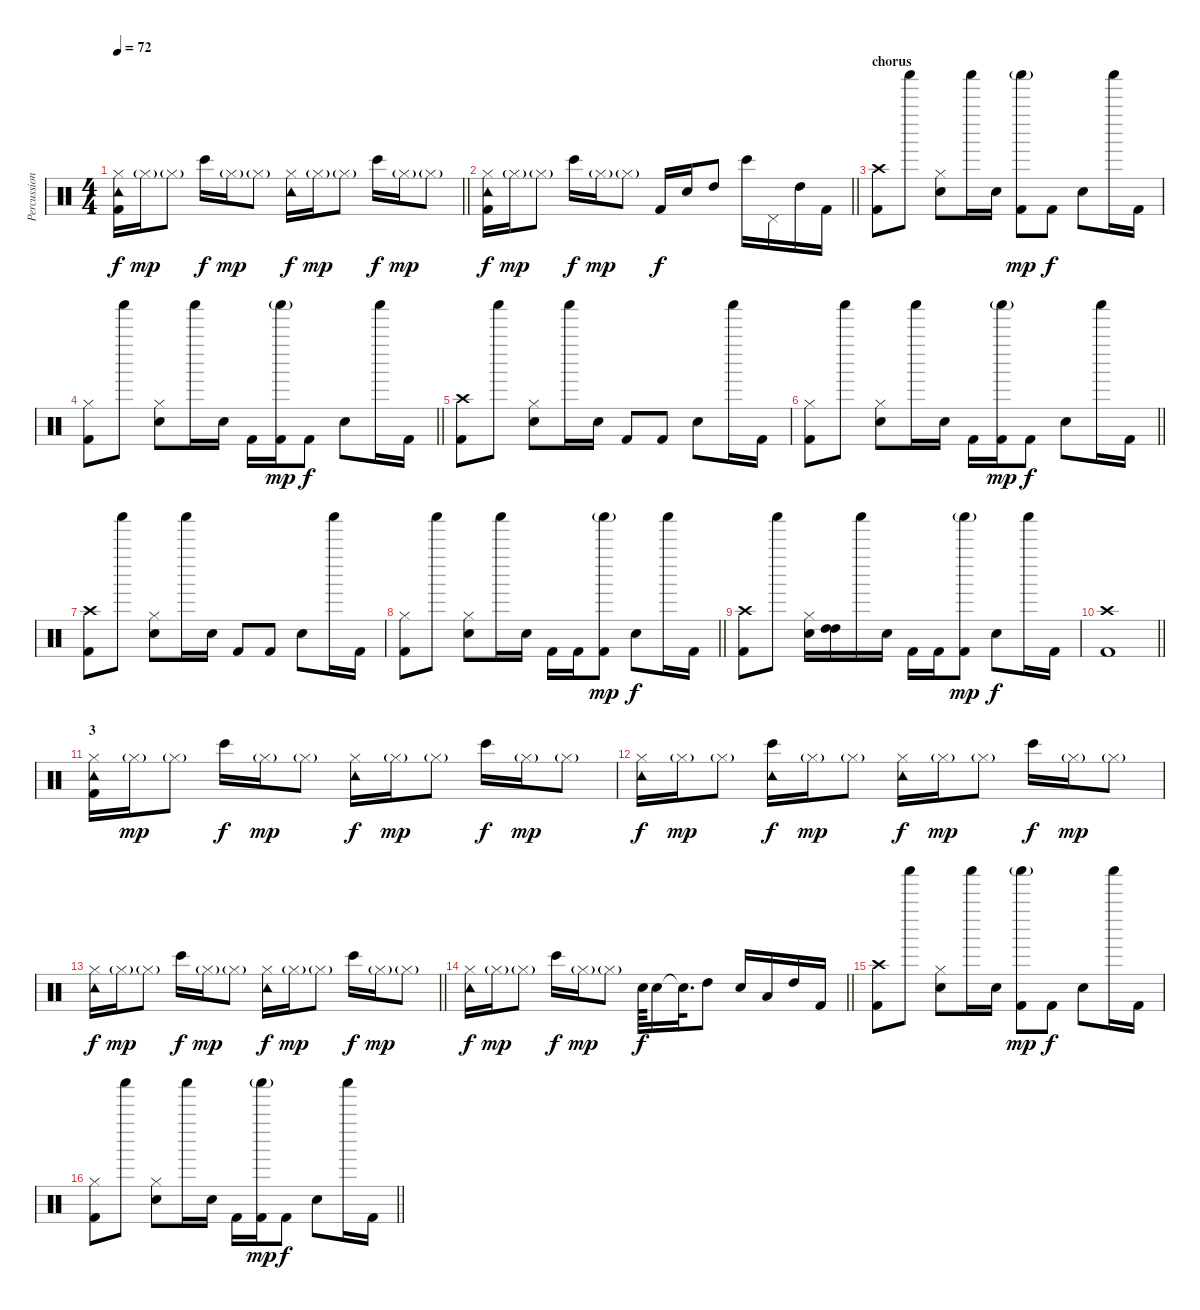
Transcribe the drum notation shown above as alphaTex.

\track ("Percussion" "Percussion") {instrument percussion bank 126}
\staff {score}
\articulation defaults
\ts (4 4)
\tempo 72
\clef neutral
\barLineRight lightlight
\ks c
("Tambourine (hit)" "Kick (hit) 2" "Hi-Hat (closed)").16{dy f} "Hi-Hat (closed)"{g}.16{dy mp} "Hi-Hat (closed)"{g}.8 "Bongo High (hit)".16{dy f} "Hi-Hat (closed)"{g}.16{dy mp} "Hi-Hat (closed)"{g}.8 ("Tambourine (hit)" "Hi-Hat (closed)").16{dy f} "Hi-Hat (closed)"{g}.16{dy mp} "Hi-Hat (closed)"{g}.8 "Bongo High (hit)".16{dy f} "Hi-Hat (closed)"{g}.16{dy mp} "Hi-Hat (closed)"{g}.8 |
\barLineRight lightlight
("Tambourine (hit)" "Kick (hit) 2" "Hi-Hat (closed)").16{dy f} "Hi-Hat (closed)"{g}.16{dy mp} "Hi-Hat (closed)"{g}.8 "Bongo High (hit)".16{dy f} "Hi-Hat (closed)"{g}.16{dy mp} "Hi-Hat (closed)"{g}.8 "Kick (hit) 2".16{dy f} "Electric Snare (hit)".16 "High Tom (hit)".8 "Bongo High (hit)".16 "Pedal Hi-Hat (hit)".16 "High Tom (hit)".16 "Kick (hit) 2".16 |
\section ("" "chorus")
("Kick (hit) 2" "Crash high (hit)").8 "Shaker (hit)".8 ("Hi-Hat (closed)" "Electric Snare (hit)").8 "Shaker (hit)".16 "Electric Snare (hit)".16 ("Kick (hit) 2" "Shaker (hit)"{g}).8{dy mp} "Kick (hit) 2".8{dy f} "Electric Snare (hit)".8 "Shaker (hit)".16 "Kick (hit) 2".16 |
\barLineRight lightlight
("Hi-Hat (closed)" "Kick (hit) 2").8 "Shaker (hit)".8 ("Hi-Hat (closed)" "Electric Snare (hit)").8 "Shaker (hit)".16 "Electric Snare (hit)".16 "Kick (hit) 2".16 ("Kick (hit) 2" "Shaker (hit)"{g}).16{dy mp} "Kick (hit) 2".8{dy f} "Electric Snare (hit)".8 "Shaker (hit)".16 "Kick (hit) 2".16 |
("Kick (hit) 2" "Crash high (hit)").8 "Shaker (hit)".8 ("Hi-Hat (closed)" "Electric Snare (hit)").8 "Shaker (hit)".16 "Electric Snare (hit)".16 "Kick (hit) 2".8 "Kick (hit) 2".8 "Electric Snare (hit)".8 "Shaker (hit)".16 "Kick (hit) 2".16 |
\barLineRight lightlight
("Hi-Hat (closed)" "Kick (hit) 2").8 "Shaker (hit)".8 ("Hi-Hat (closed)" "Electric Snare (hit)").8 "Shaker (hit)".16 "Electric Snare (hit)".16 "Kick (hit) 2".16 ("Kick (hit) 2" "Shaker (hit)"{g}).16{dy mp} "Kick (hit) 2".8{dy f} "Electric Snare (hit)".8 "Shaker (hit)".16 "Kick (hit) 2".16 |
("Kick (hit) 2" "Crash high (hit)").8 "Shaker (hit)".8 ("Hi-Hat (closed)" "Electric Snare (hit)").8 "Shaker (hit)".16 "Electric Snare (hit)".16 "Kick (hit) 2".8 "Kick (hit) 2".8 "Electric Snare (hit)".8 "Shaker (hit)".16 "Kick (hit) 2".16 |
\barLineRight lightlight
("Hi-Hat (closed)" "Kick (hit) 2").8 "Shaker (hit)".8 ("Hi-Hat (closed)" "Electric Snare (hit)").8 "Shaker (hit)".16 "Electric Snare (hit)".16 "Kick (hit) 2".16 "Kick (hit) 2".16 ("Kick (hit) 2" "Shaker (hit)"{g}).8{dy mp} "Electric Snare (hit)".8{dy f} "Shaker (hit)".16 "Kick (hit) 2".16 |
("Crash high (hit)" "Kick (hit) 2").8 "Shaker (hit)".8 ("Hi-Hat (closed)" "Electric Snare (hit)").16 ("High Tom (hit)" "High Tom (hit)").16 "Shaker (hit)".16 "Electric Snare (hit)".16 "Kick (hit) 2".16 "Kick (hit) 2".16 ("Kick (hit) 2" "Shaker (hit)"{g}).8{dy mp} "Electric Snare (hit)".8{dy f} "Shaker (hit)".16 "Kick (hit) 2".16 |
\barLineRight lightlight
("Crash high (hit)" "Kick (hit) 2").1 |
\section ("" "3")
("Tambourine (hit)" "Kick (hit) 2" "Hi-Hat (closed)").16 "Hi-Hat (closed)"{g}.16{dy mp} "Hi-Hat (closed)"{g}.8 "Bongo High (hit)".16{dy f} "Hi-Hat (closed)"{g}.16{dy mp} "Hi-Hat (closed)"{g}.8 ("Tambourine (hit)" "Hi-Hat (closed)").16{dy f} "Hi-Hat (closed)"{g}.16{dy mp} "Hi-Hat (closed)"{g}.8 "Bongo High (hit)".16{dy f} "Hi-Hat (closed)"{g}.16{dy mp} "Hi-Hat (closed)"{g}.8 |
("Tambourine (hit)" "Hi-Hat (closed)").16{dy f} "Hi-Hat (closed)"{g}.16{dy mp} "Hi-Hat (closed)"{g}.8 ("Bongo High (hit)" "Tambourine (hit)").16{dy f} "Hi-Hat (closed)"{g}.16{dy mp} "Hi-Hat (closed)"{g}.8 ("Tambourine (hit)" "Hi-Hat (closed)").16{dy f} "Hi-Hat (closed)"{g}.16{dy mp} "Hi-Hat (closed)"{g}.8 "Bongo High (hit)".16{dy f} "Hi-Hat (closed)"{g}.16{dy mp} "Hi-Hat (closed)"{g}.8 |
\barLineRight lightlight
("Tambourine (hit)" "Hi-Hat (closed)").16{dy f} "Hi-Hat (closed)"{g}.16{dy mp} "Hi-Hat (closed)"{g}.8 "Bongo High (hit)".16{dy f} "Hi-Hat (closed)"{g}.16{dy mp} "Hi-Hat (closed)"{g}.8 ("Tambourine (hit)" "Hi-Hat (closed)").16{dy f} "Hi-Hat (closed)"{g}.16{dy mp} "Hi-Hat (closed)"{g}.8 "Bongo High (hit)".16{dy f} "Hi-Hat (closed)"{g}.16{dy mp} "Hi-Hat (closed)"{g}.8 |
\barLineRight lightlight
("Tambourine (hit)" "Hi-Hat (closed)").16{dy f} "Hi-Hat (closed)"{g}.16{dy mp} "Hi-Hat (closed)"{g}.8 "Bongo High (hit)".16{dy f} "Hi-Hat (closed)"{g}.16{dy mp} "Hi-Hat (closed)"{g}.8 "Electric Snare (hit)".64{dy f} "Electric Snare (hit)".16 "Electric Snare (hit)"{t}.32{d} "High Tom (hit)".8 "Electric Snare (hit)".16 "Low Tom (hit)".16 "High Tom (hit)".16 "Kick (hit) 2".16 |
("Kick (hit) 2" "Crash high (hit)").8 "Shaker (hit)".8 ("Hi-Hat (closed)" "Electric Snare (hit)").8 "Shaker (hit)".16 "Electric Snare (hit)".16 ("Kick (hit) 2" "Shaker (hit)"{g}).8{dy mp} "Kick (hit) 2".8{dy f} "Electric Snare (hit)".8 "Shaker (hit)".16 "Kick (hit) 2".16 |
\barLineRight lightlight
("Hi-Hat (closed)" "Kick (hit) 2").8 "Shaker (hit)".8 ("Hi-Hat (closed)" "Electric Snare (hit)").8 "Shaker (hit)".16 "Electric Snare (hit)".16 "Kick (hit) 2".16 ("Kick (hit) 2" "Shaker (hit)"{g}).16{dy mp} "Kick (hit) 2".8{dy f} "Electric Snare (hit)".8 "Shaker (hit)".16 "Kick (hit) 2".16
